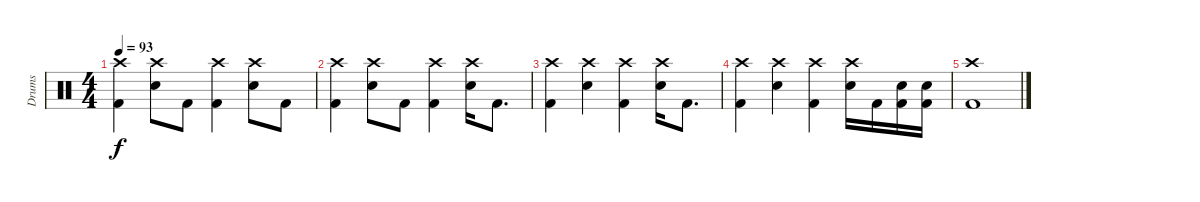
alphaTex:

\track ("Drums" "Drums") {instrument percussion}
\staff
\articulation defaults
\ts (4 4)
\tempo 93
\clef neutral
\ks c
("Crash high (hit)" "Kick (hit) 2").4{dy f} ("Crash high (hit)" "Snare (hit) 2").8 "Kick (hit) 2".8 ("Crash high (hit)" "Kick (hit) 2").4 ("Crash high (hit)" "Snare (hit) 2").8 "Kick (hit) 2".8 |
("Crash high (hit)" "Kick (hit) 2").4 ("Crash high (hit)" "Snare (hit) 2").8 "Kick (hit) 2".8 ("Crash high (hit)" "Kick (hit) 2").4 ("Crash high (hit)" "Snare (hit) 2").16 "Kick (hit) 2".8{d} |
("Crash high (hit)" "Kick (hit) 2").4 ("Crash high (hit)" "Snare (hit) 2").4 ("Crash high (hit)" "Kick (hit) 2").4 ("Crash high (hit)" "Snare (hit) 2").16 "Kick (hit) 2".8{d} |
("Crash high (hit)" "Kick (hit) 2").4 ("Crash high (hit)" "Snare (hit) 2").4 ("Crash high (hit)" "Kick (hit) 2").4 ("Crash high (hit)" "Snare (hit) 2").16 "Kick (hit) 2".16 ("Snare (hit) 2" "Kick (hit) 2").16 ("Snare (hit) 2" "Kick (hit) 2").16 |
("Crash high (hit)" "Kick (hit) 2").1
